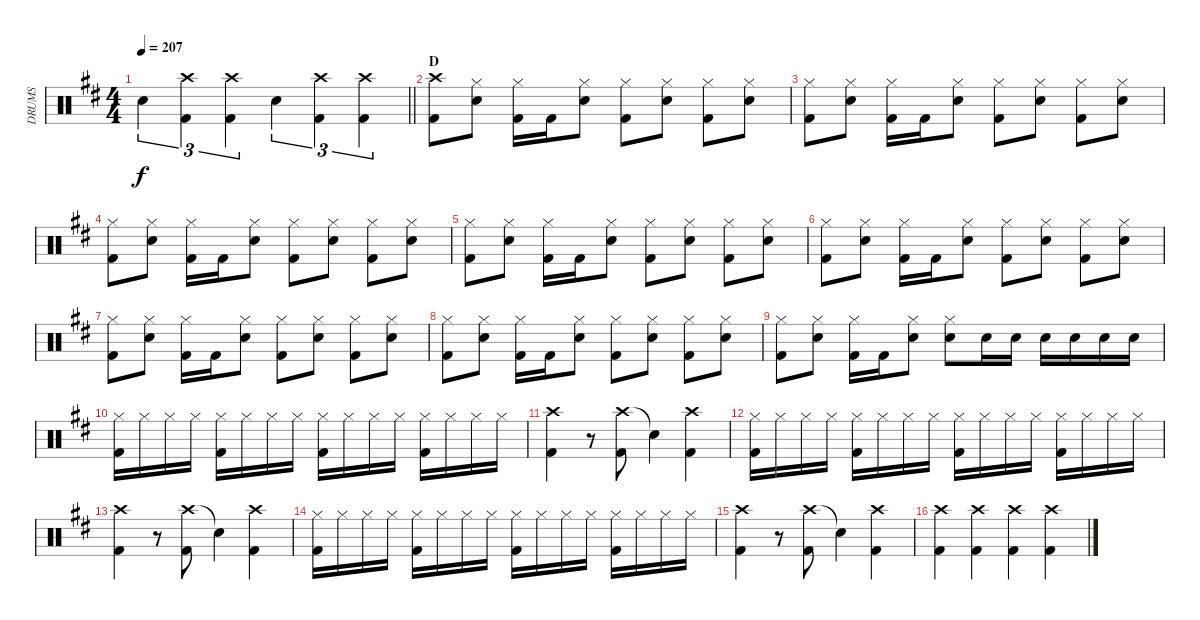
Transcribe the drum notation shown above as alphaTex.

\track ("DRUMS" "DRUMS") {instrument percussion}
\staff {score}
\articulation defaults
\ts (4 4)
\tempo 207
\clef neutral
\barLineRight lightlight
\ks d "Snare (hit) 2".4{tu (3 2) dy f}
("Crash high (hit)" "Kick (hit) 2").4{tu (3 2)} ("Crash high (hit)" "Kick (hit) 2").4{tu (3 2)} "Snare (hit) 2".4{tu (3 2)} ("Crash high (hit)" "Kick (hit) 2").4{tu (3 2)} ("Crash high (hit)" "Kick (hit) 2").4{tu (3 2)} |
\section ("" "D")
("Crash high (hit)" "Kick (hit) 2").8 ("Hi-Hat (closed)" "Snare (hit) 2").8 ("Hi-Hat (closed)" "Kick (hit) 2").16 "Kick (hit) 2".16 ("Hi-Hat (closed)" "Snare (hit) 2").8 ("Hi-Hat (closed)" "Kick (hit) 2").8 ("Hi-Hat (closed)" "Snare (hit) 2").8 ("Hi-Hat (closed)" "Kick (hit) 2").8 ("Hi-Hat (closed)" "Snare (hit) 2").8 |
("Hi-Hat (closed)" "Kick (hit) 2").8 ("Hi-Hat (closed)" "Snare (hit) 2").8 ("Hi-Hat (closed)" "Kick (hit) 2").16 "Kick (hit) 2".16 ("Hi-Hat (closed)" "Snare (hit) 2").8 ("Hi-Hat (closed)" "Kick (hit) 2").8 ("Hi-Hat (closed)" "Snare (hit) 2").8 ("Hi-Hat (closed)" "Kick (hit) 2").8 ("Hi-Hat (closed)" "Snare (hit) 2").8 |
("Hi-Hat (closed)" "Kick (hit) 2").8 ("Hi-Hat (closed)" "Snare (hit) 2").8 ("Hi-Hat (closed)" "Kick (hit) 2").16 "Kick (hit) 2".16 ("Hi-Hat (closed)" "Snare (hit) 2").8 ("Hi-Hat (closed)" "Kick (hit) 2").8 ("Hi-Hat (closed)" "Snare (hit) 2").8 ("Hi-Hat (closed)" "Kick (hit) 2").8 ("Hi-Hat (closed)" "Snare (hit) 2").8 |
("Hi-Hat (closed)" "Kick (hit) 2").8 ("Hi-Hat (closed)" "Snare (hit) 2").8 ("Hi-Hat (closed)" "Kick (hit) 2").16 "Kick (hit) 2".16 ("Hi-Hat (closed)" "Snare (hit) 2").8 ("Hi-Hat (closed)" "Kick (hit) 2").8 ("Hi-Hat (closed)" "Snare (hit) 2").8 ("Hi-Hat (closed)" "Kick (hit) 2").8 ("Hi-Hat (closed)" "Snare (hit) 2").8 |
("Hi-Hat (closed)" "Kick (hit) 2").8 ("Hi-Hat (closed)" "Snare (hit) 2").8 ("Hi-Hat (closed)" "Kick (hit) 2").16 "Kick (hit) 2".16 ("Hi-Hat (closed)" "Snare (hit) 2").8 ("Hi-Hat (closed)" "Kick (hit) 2").8 ("Hi-Hat (closed)" "Snare (hit) 2").8 ("Hi-Hat (closed)" "Kick (hit) 2").8 ("Hi-Hat (closed)" "Snare (hit) 2").8 |
("Hi-Hat (closed)" "Kick (hit) 2").8 ("Hi-Hat (closed)" "Snare (hit) 2").8 ("Hi-Hat (closed)" "Kick (hit) 2").16 "Kick (hit) 2".16 ("Hi-Hat (closed)" "Snare (hit) 2").8 ("Hi-Hat (closed)" "Kick (hit) 2").8 ("Hi-Hat (closed)" "Snare (hit) 2").8 ("Hi-Hat (closed)" "Kick (hit) 2").8 ("Hi-Hat (closed)" "Snare (hit) 2").8 |
("Hi-Hat (closed)" "Kick (hit) 2").8 ("Hi-Hat (closed)" "Snare (hit) 2").8 ("Hi-Hat (closed)" "Kick (hit) 2").16 "Kick (hit) 2".16 ("Hi-Hat (closed)" "Snare (hit) 2").8 ("Hi-Hat (closed)" "Kick (hit) 2").8 ("Hi-Hat (closed)" "Snare (hit) 2").8 ("Hi-Hat (closed)" "Kick (hit) 2").8 ("Hi-Hat (closed)" "Snare (hit) 2").8 |
("Hi-Hat (closed)" "Kick (hit) 2").8 ("Hi-Hat (closed)" "Snare (hit) 2").8 ("Hi-Hat (closed)" "Kick (hit) 2").16 "Kick (hit) 2".16 ("Hi-Hat (closed)" "Snare (hit) 2").8 ("Hi-Hat (closed)" "Snare (hit) 2").8 "Snare (hit) 2".16 "Snare (hit) 2".16 "Snare (hit) 2".16 "Snare (hit) 2".16 "Snare (hit) 2".16 "Snare (hit) 2".16 |
("Hi-Hat (closed)" "Kick (hit) 2").16 "Hi-Hat (closed)".16 "Hi-Hat (closed)".16 "Hi-Hat (closed)".16 ("Hi-Hat (closed)" "Kick (hit) 2").16 "Hi-Hat (closed)".16 "Hi-Hat (closed)".16 "Hi-Hat (closed)".16 ("Hi-Hat (closed)" "Kick (hit) 2").16 "Hi-Hat (closed)".16 "Hi-Hat (closed)".16 "Hi-Hat (closed)".16 ("Hi-Hat (closed)" "Kick (hit) 2").16 "Hi-Hat (closed)".16 "Hi-Hat (closed)".16 "Hi-Hat (closed)".16 |
("Crash high (hit)" "Kick (hit) 2").4 r.8 ("Crash high (hit)" "Kick (hit) 2").8 "Snare (hit)"{t}.4 ("Crash high (hit)" "Kick (hit) 2").4 |
("Hi-Hat (closed)" "Kick (hit) 2").16 "Hi-Hat (closed)".16 "Hi-Hat (closed)".16 "Hi-Hat (closed)".16 ("Hi-Hat (closed)" "Kick (hit) 2").16 "Hi-Hat (closed)".16 "Hi-Hat (closed)".16 "Hi-Hat (closed)".16 ("Hi-Hat (closed)" "Kick (hit) 2").16 "Hi-Hat (closed)".16 "Hi-Hat (closed)".16 "Hi-Hat (closed)".16 ("Hi-Hat (closed)" "Kick (hit) 2").16 "Hi-Hat (closed)".16 "Hi-Hat (closed)".16 "Hi-Hat (closed)".16 |
("Crash high (hit)" "Kick (hit) 2").4 r.8 ("Crash high (hit)" "Kick (hit) 2").8 "Snare (hit)"{t}.4 ("Crash high (hit)" "Kick (hit) 2").4 |
("Hi-Hat (closed)" "Kick (hit) 2").16 "Hi-Hat (closed)".16 "Hi-Hat (closed)".16 "Hi-Hat (closed)".16 ("Hi-Hat (closed)" "Kick (hit) 2").16 "Hi-Hat (closed)".16 "Hi-Hat (closed)".16 "Hi-Hat (closed)".16 ("Hi-Hat (closed)" "Kick (hit) 2").16 "Hi-Hat (closed)".16 "Hi-Hat (closed)".16 "Hi-Hat (closed)".16 ("Hi-Hat (closed)" "Kick (hit) 2").16 "Hi-Hat (closed)".16 "Hi-Hat (closed)".16 "Hi-Hat (closed)".16 |
("Crash high (hit)" "Kick (hit) 2").4 r.8 ("Crash high (hit)" "Kick (hit) 2").8 "Snare (hit)"{t}.4 ("Crash high (hit)" "Kick (hit) 2").4 |
("Crash high (hit)" "Kick (hit) 2").4 ("Crash high (hit)" "Kick (hit) 2").4 ("Crash high (hit)" "Kick (hit) 2").4 ("Crash high (hit)" "Kick (hit) 2").4
